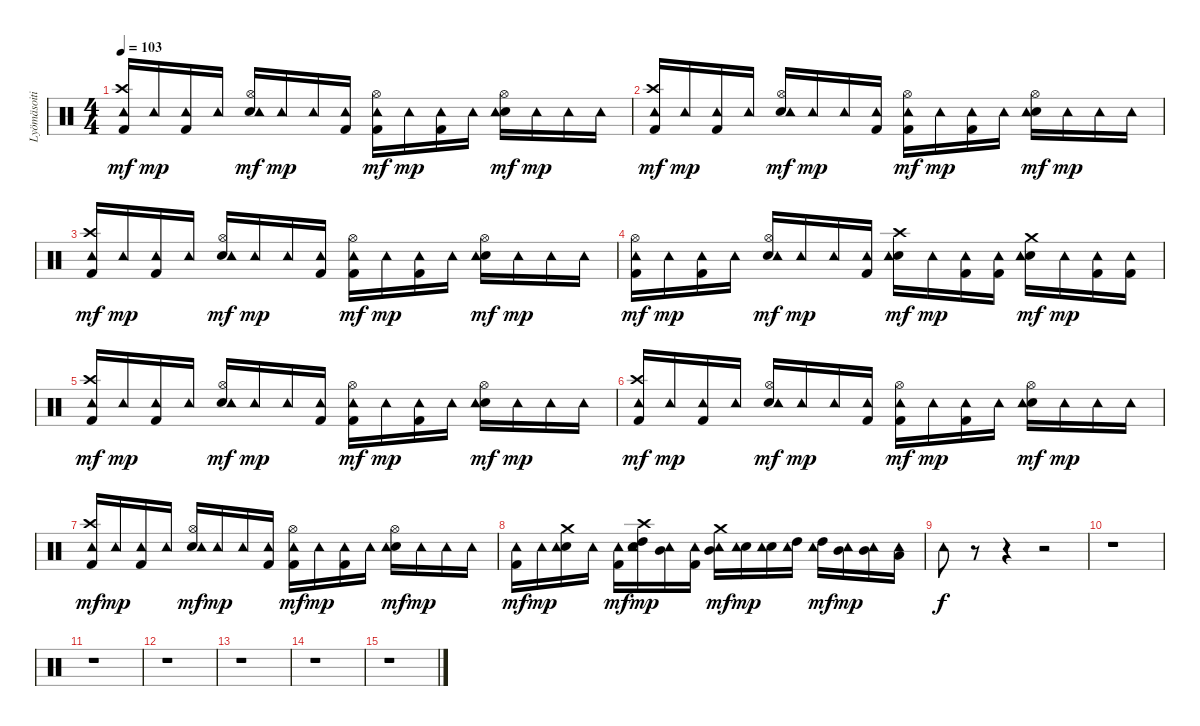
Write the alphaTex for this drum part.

\track ("Lyömäsoitin" "Lyömäsoiti") {instrument percussion}
\staff {score}
\articulation defaults
\ts (4 4)
\tempo 103
\clef neutral
\ks c
("Kick (hit) 2" "Crash high (hit)" "Tambourine (hit)").16{dy mf} "Tambourine (hit)".16{dy mp} ("Kick (hit) 2" "Tambourine (hit)").16 "Tambourine (hit)".16 ("Hi-Hat (open)" "Snare (hit) 2" "Tambourine (hit)").16{dy mf} "Tambourine (hit)".16{dy mp} "Tambourine (hit)".16 ("Kick (hit) 2" "Tambourine (hit)").16 ("Kick (hit) 2" "Hi-Hat (open)" "Tambourine (hit)").16{dy mf} "Tambourine (hit)".16{dy mp} ("Kick (hit) 2" "Tambourine (hit)").16 "Tambourine (hit)".16 ("Hi-Hat (open)" "Snare (hit) 2" "Tambourine (hit)").16{dy mf} "Tambourine (hit)".16{dy mp} "Tambourine (hit)".16 "Tambourine (hit)".16 |
("Kick (hit) 2" "Crash high (hit)" "Tambourine (hit)").16{dy mf} "Tambourine (hit)".16{dy mp} ("Kick (hit) 2" "Tambourine (hit)").16 "Tambourine (hit)".16 ("Hi-Hat (open)" "Snare (hit) 2" "Tambourine (hit)").16{dy mf} "Tambourine (hit)".16{dy mp} "Tambourine (hit)".16 ("Kick (hit) 2" "Tambourine (hit)").16 ("Kick (hit) 2" "Hi-Hat (open)" "Tambourine (hit)").16{dy mf} "Tambourine (hit)".16{dy mp} ("Kick (hit) 2" "Tambourine (hit)").16 "Tambourine (hit)".16 ("Hi-Hat (open)" "Snare (hit) 2" "Tambourine (hit)").16{dy mf} "Tambourine (hit)".16{dy mp} "Tambourine (hit)".16 "Tambourine (hit)".16 |
("Kick (hit) 2" "Crash high (hit)" "Tambourine (hit)").16{dy mf} "Tambourine (hit)".16{dy mp} ("Kick (hit) 2" "Tambourine (hit)").16 "Tambourine (hit)".16 ("Hi-Hat (open)" "Snare (hit) 2" "Tambourine (hit)").16{dy mf} "Tambourine (hit)".16{dy mp} "Tambourine (hit)".16 ("Kick (hit) 2" "Tambourine (hit)").16 ("Kick (hit) 2" "Hi-Hat (open)" "Tambourine (hit)").16{dy mf} "Tambourine (hit)".16{dy mp} ("Kick (hit) 2" "Tambourine (hit)").16 "Tambourine (hit)".16 ("Hi-Hat (open)" "Snare (hit) 2" "Tambourine (hit)").16{dy mf} "Tambourine (hit)".16{dy mp} "Tambourine (hit)".16 "Tambourine (hit)".16 |
("Kick (hit) 2" "Hi-Hat (open)" "Tambourine (hit)").16{dy mf} "Tambourine (hit)".16{dy mp} ("Kick (hit) 2" "Tambourine (hit)").16 "Tambourine (hit)".16 ("Hi-Hat (open)" "Snare (hit) 2" "Tambourine (hit)").16{dy mf} "Tambourine (hit)".16{dy mp} "Tambourine (hit)".16 ("Kick (hit) 2" "Tambourine (hit)").16 ("Crash high (hit)" "Snare (hit) 2" "Tambourine (hit)").16{dy mf} "Tambourine (hit)".16{dy mp} ("Kick (hit) 2" "Tambourine (hit)").16 ("Kick (hit) 2" "Tambourine (hit)").16 ("Crash medium (hit)" "Snare (hit) 2" "Tambourine (hit)").16{dy mf} "Tambourine (hit)".16{dy mp} ("Kick (hit) 2" "Tambourine (hit)").16 ("Kick (hit) 2" "Tambourine (hit)").16 |
("Kick (hit) 2" "Crash high (hit)" "Tambourine (hit)").16{dy mf} "Tambourine (hit)".16{dy mp} ("Kick (hit) 2" "Tambourine (hit)").16 "Tambourine (hit)".16 ("Hi-Hat (open)" "Snare (hit) 2" "Tambourine (hit)").16{dy mf} "Tambourine (hit)".16{dy mp} "Tambourine (hit)".16 ("Kick (hit) 2" "Tambourine (hit)").16 ("Kick (hit) 2" "Hi-Hat (open)" "Tambourine (hit)").16{dy mf} "Tambourine (hit)".16{dy mp} ("Kick (hit) 2" "Tambourine (hit)").16 "Tambourine (hit)".16 ("Hi-Hat (open)" "Snare (hit) 2" "Tambourine (hit)").16{dy mf} "Tambourine (hit)".16{dy mp} "Tambourine (hit)".16 "Tambourine (hit)".16 |
("Kick (hit) 2" "Crash high (hit)" "Tambourine (hit)").16{dy mf} "Tambourine (hit)".16{dy mp} ("Kick (hit) 2" "Tambourine (hit)").16 "Tambourine (hit)".16 ("Hi-Hat (open)" "Snare (hit) 2" "Tambourine (hit)").16{dy mf} "Tambourine (hit)".16{dy mp} "Tambourine (hit)".16 ("Kick (hit) 2" "Tambourine (hit)").16 ("Kick (hit) 2" "Hi-Hat (open)" "Tambourine (hit)").16{dy mf} "Tambourine (hit)".16{dy mp} ("Kick (hit) 2" "Tambourine (hit)").16 "Tambourine (hit)".16 ("Hi-Hat (open)" "Snare (hit) 2" "Tambourine (hit)").16{dy mf} "Tambourine (hit)".16{dy mp} "Tambourine (hit)".16 "Tambourine (hit)".16 |
("Kick (hit) 2" "Crash high (hit)" "Tambourine (hit)").16{dy mf} "Tambourine (hit)".16{dy mp} ("Kick (hit) 2" "Tambourine (hit)").16 "Tambourine (hit)".16 ("Hi-Hat (open)" "Snare (hit) 2" "Tambourine (hit)").16{dy mf} "Tambourine (hit)".16{dy mp} "Tambourine (hit)".16 ("Kick (hit) 2" "Tambourine (hit)").16 ("Kick (hit) 2" "Hi-Hat (open)" "Tambourine (hit)").16{dy mf} "Tambourine (hit)".16{dy mp} ("Kick (hit) 2" "Tambourine (hit)").16 "Tambourine (hit)".16 ("Hi-Hat (open)" "Snare (hit) 2" "Tambourine (hit)").16{dy mf} "Tambourine (hit)".16{dy mp} "Tambourine (hit)".16 "Tambourine (hit)".16 |
("Kick (hit) 2" "Tambourine (hit)").16{dy mf} "Tambourine (hit)".16{dy mp} ("Crash medium (hit)" "Snare (hit) 2" "Tambourine (hit)").16 "Tambourine (hit)".16 ("Kick (hit) 2" "Tambourine (hit)").16{dy mf} ("Crash high (hit)" "High Tom (hit)" "Snare (hit) 2" "Tambourine (hit)").16{dy mp} ("Mid Tom (hit)" "Tambourine (hit)").16 ("Kick (hit) 2" "Tambourine (hit)").16 ("Crash medium (hit)" "Mid Tom (hit)" "Tambourine (hit)").16{dy mf} ("Snare (hit) 2" "Tambourine (hit)").16{dy mp} ("Snare (hit) 2" "Tambourine (hit)").16 ("High Tom (hit)" "Tambourine (hit)").16 ("High Tom (hit)" "Tambourine (hit)").16{dy mf} ("Mid Tom (hit)" "Tambourine (hit)").16{dy mp} ("Mid Tom (hit)" "Tambourine (hit)").16 ("Low Tom (hit)" "Tambourine (hit)").16 |
"Tambourine (hit)".8{dy f} r.8 r.4 r.2 |
r.1 |
r.1 |
r.1 |
r.1 |
r.1 |
r.1
